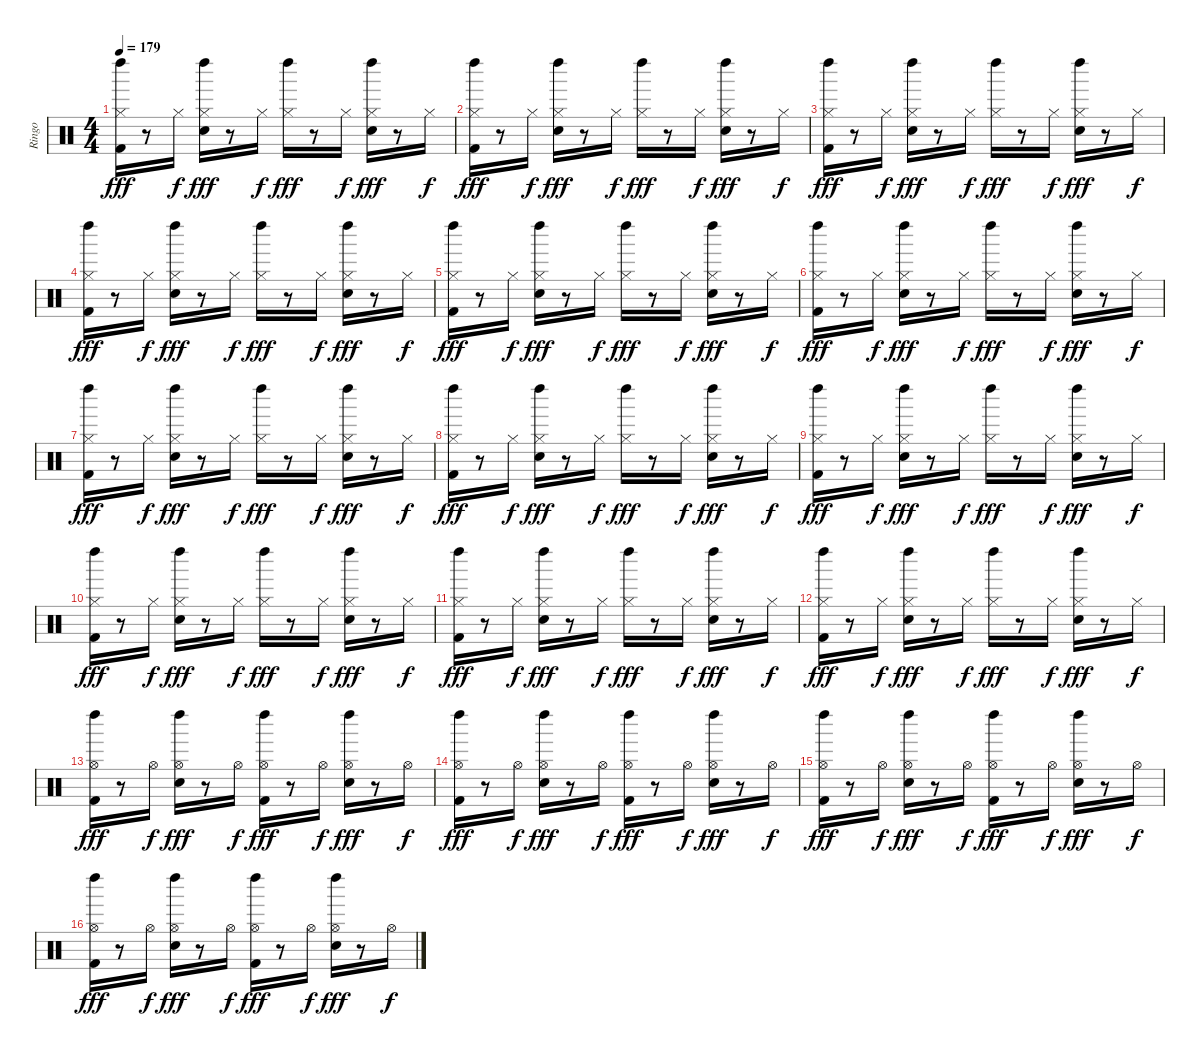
\track ("Ringo" "Ringo") {instrument percussion}
\staff {score}
\articulation defaults
\ts (4 4)
\tempo 179
\clef neutral
\ks c
("Hi-Hat (closed)" "Kick (hit) 2" "Left Maraca (hit)").16{dy fff} r.8 "Hi-Hat (closed)".16{dy f} ("Hi-Hat (closed)" "Snare (hit) 2" "Left Maraca (hit)").16{dy fff} r.8 "Hi-Hat (closed)".16{dy f} ("Hi-Hat (closed)" "Left Maraca (hit)").16{dy fff} r.8 "Hi-Hat (closed)".16{dy f} ("Hi-Hat (closed)" "Snare (hit) 2" "Left Maraca (hit)").16{dy fff} r.8 "Hi-Hat (closed)".16{dy f} |
("Hi-Hat (closed)" "Kick (hit) 2" "Left Maraca (hit)").16{dy fff} r.8 "Hi-Hat (closed)".16{dy f} ("Hi-Hat (closed)" "Snare (hit) 2" "Left Maraca (hit)").16{dy fff} r.8 "Hi-Hat (closed)".16{dy f} ("Hi-Hat (closed)" "Left Maraca (hit)").16{dy fff} r.8 "Hi-Hat (closed)".16{dy f} ("Hi-Hat (closed)" "Snare (hit) 2" "Left Maraca (hit)").16{dy fff} r.8 "Hi-Hat (closed)".16{dy f} |
("Hi-Hat (closed)" "Kick (hit) 2" "Left Maraca (hit)").16{dy fff} r.8 "Hi-Hat (closed)".16{dy f} ("Hi-Hat (closed)" "Snare (hit) 2" "Left Maraca (hit)").16{dy fff} r.8 "Hi-Hat (closed)".16{dy f} ("Hi-Hat (closed)" "Left Maraca (hit)").16{dy fff} r.8 "Hi-Hat (closed)".16{dy f} ("Hi-Hat (closed)" "Snare (hit) 2" "Left Maraca (hit)").16{dy fff} r.8 "Hi-Hat (closed)".16{dy f} |
("Hi-Hat (closed)" "Kick (hit) 2" "Left Maraca (hit)").16{dy fff} r.8 "Hi-Hat (closed)".16{dy f} ("Hi-Hat (closed)" "Snare (hit) 2" "Left Maraca (hit)").16{dy fff} r.8 "Hi-Hat (closed)".16{dy f} ("Hi-Hat (closed)" "Left Maraca (hit)").16{dy fff} r.8 "Hi-Hat (closed)".16{dy f} ("Hi-Hat (closed)" "Snare (hit) 2" "Left Maraca (hit)").16{dy fff} r.8 "Hi-Hat (closed)".16{dy f} |
("Hi-Hat (closed)" "Kick (hit) 2" "Left Maraca (hit)").16{dy fff} r.8 "Hi-Hat (closed)".16{dy f} ("Hi-Hat (closed)" "Snare (hit) 2" "Left Maraca (hit)").16{dy fff} r.8 "Hi-Hat (closed)".16{dy f} ("Hi-Hat (closed)" "Left Maraca (hit)").16{dy fff} r.8 "Hi-Hat (closed)".16{dy f} ("Hi-Hat (closed)" "Snare (hit) 2" "Left Maraca (hit)").16{dy fff} r.8 "Hi-Hat (closed)".16{dy f} |
("Hi-Hat (closed)" "Kick (hit) 2" "Left Maraca (hit)").16{dy fff} r.8 "Hi-Hat (closed)".16{dy f} ("Hi-Hat (closed)" "Snare (hit) 2" "Left Maraca (hit)").16{dy fff} r.8 "Hi-Hat (closed)".16{dy f} ("Hi-Hat (closed)" "Left Maraca (hit)").16{dy fff} r.8 "Hi-Hat (closed)".16{dy f} ("Hi-Hat (closed)" "Snare (hit) 2" "Left Maraca (hit)").16{dy fff} r.8 "Hi-Hat (closed)".16{dy f} |
("Hi-Hat (closed)" "Kick (hit) 2" "Left Maraca (hit)").16{dy fff} r.8 "Hi-Hat (closed)".16{dy f} ("Hi-Hat (closed)" "Snare (hit) 2" "Left Maraca (hit)").16{dy fff} r.8 "Hi-Hat (closed)".16{dy f} ("Hi-Hat (closed)" "Left Maraca (hit)").16{dy fff} r.8 "Hi-Hat (closed)".16{dy f} ("Hi-Hat (closed)" "Snare (hit) 2" "Left Maraca (hit)").16{dy fff} r.8 "Hi-Hat (closed)".16{dy f} |
("Hi-Hat (closed)" "Kick (hit) 2" "Left Maraca (hit)").16{dy fff} r.8 "Hi-Hat (closed)".16{dy f} ("Hi-Hat (closed)" "Snare (hit) 2" "Left Maraca (hit)").16{dy fff} r.8 "Hi-Hat (closed)".16{dy f} ("Hi-Hat (closed)" "Left Maraca (hit)").16{dy fff} r.8 "Hi-Hat (closed)".16{dy f} ("Hi-Hat (closed)" "Snare (hit) 2" "Left Maraca (hit)").16{dy fff} r.8 "Hi-Hat (closed)".16{dy f} |
("Hi-Hat (closed)" "Kick (hit) 2" "Left Maraca (hit)").16{dy fff} r.8 "Hi-Hat (closed)".16{dy f} ("Hi-Hat (closed)" "Snare (hit) 2" "Left Maraca (hit)").16{dy fff} r.8 "Hi-Hat (closed)".16{dy f} ("Hi-Hat (closed)" "Left Maraca (hit)").16{dy fff} r.8 "Hi-Hat (closed)".16{dy f} ("Hi-Hat (closed)" "Snare (hit) 2" "Left Maraca (hit)").16{dy fff} r.8 "Hi-Hat (closed)".16{dy f} |
("Hi-Hat (closed)" "Kick (hit) 2" "Left Maraca (hit)").16{dy fff} r.8 "Hi-Hat (closed)".16{dy f} ("Hi-Hat (closed)" "Snare (hit) 2" "Left Maraca (hit)").16{dy fff} r.8 "Hi-Hat (closed)".16{dy f} ("Hi-Hat (closed)" "Left Maraca (hit)").16{dy fff} r.8 "Hi-Hat (closed)".16{dy f} ("Hi-Hat (closed)" "Snare (hit) 2" "Left Maraca (hit)").16{dy fff} r.8 "Hi-Hat (closed)".16{dy f} |
("Hi-Hat (closed)" "Kick (hit) 2" "Left Maraca (hit)").16{dy fff} r.8 "Hi-Hat (closed)".16{dy f} ("Hi-Hat (closed)" "Snare (hit) 2" "Left Maraca (hit)").16{dy fff} r.8 "Hi-Hat (closed)".16{dy f} ("Hi-Hat (closed)" "Left Maraca (hit)").16{dy fff} r.8 "Hi-Hat (closed)".16{dy f} ("Hi-Hat (closed)" "Snare (hit) 2" "Left Maraca (hit)").16{dy fff} r.8 "Hi-Hat (closed)".16{dy f} |
("Hi-Hat (closed)" "Kick (hit) 2" "Left Maraca (hit)").16{dy fff} r.8 "Hi-Hat (closed)".16{dy f} ("Hi-Hat (closed)" "Snare (hit) 2" "Left Maraca (hit)").16{dy fff} r.8 "Hi-Hat (closed)".16{dy f} ("Hi-Hat (closed)" "Left Maraca (hit)").16{dy fff} r.8 "Hi-Hat (closed)".16{dy f} ("Hi-Hat (closed)" "Snare (hit) 2" "Left Maraca (hit)").16{dy fff} r.8 "Hi-Hat (closed)".16{dy f} |
("Kick (hit) 2" "Hi-Hat (open)" "Left Maraca (hit)").16{dy fff} r.8 "Hi-Hat (open)".16{dy f} ("Snare (hit) 2" "Hi-Hat (open)" "Left Maraca (hit)").16{dy fff} r.8 "Hi-Hat (open)".16{dy f} ("Kick (hit) 2" "Hi-Hat (open)" "Left Maraca (hit)").16{dy fff} r.8 "Hi-Hat (open)".16{dy f} ("Snare (hit) 2" "Hi-Hat (open)" "Left Maraca (hit)").16{dy fff} r.8 "Hi-Hat (open)".16{dy f} |
("Kick (hit) 2" "Hi-Hat (open)" "Left Maraca (hit)").16{dy fff} r.8 "Hi-Hat (open)".16{dy f} ("Snare (hit) 2" "Hi-Hat (open)" "Left Maraca (hit)").16{dy fff} r.8 "Hi-Hat (open)".16{dy f} ("Kick (hit) 2" "Hi-Hat (open)" "Left Maraca (hit)").16{dy fff} r.8 "Hi-Hat (open)".16{dy f} ("Snare (hit) 2" "Hi-Hat (open)" "Left Maraca (hit)").16{dy fff} r.8 "Hi-Hat (open)".16{dy f} |
("Kick (hit) 2" "Hi-Hat (open)" "Left Maraca (hit)").16{dy fff} r.8 "Hi-Hat (open)".16{dy f} ("Snare (hit) 2" "Hi-Hat (open)" "Left Maraca (hit)").16{dy fff} r.8 "Hi-Hat (open)".16{dy f} ("Kick (hit) 2" "Hi-Hat (open)" "Left Maraca (hit)").16{dy fff} r.8 "Hi-Hat (open)".16{dy f} ("Snare (hit) 2" "Hi-Hat (open)" "Left Maraca (hit)").16{dy fff} r.8 "Hi-Hat (open)".16{dy f} |
("Kick (hit) 2" "Hi-Hat (open)" "Left Maraca (hit)").16{dy fff} r.8 "Hi-Hat (open)".16{dy f} ("Snare (hit) 2" "Hi-Hat (open)" "Left Maraca (hit)").16{dy fff} r.8 "Hi-Hat (open)".16{dy f} ("Kick (hit) 2" "Hi-Hat (open)" "Left Maraca (hit)").16{dy fff} r.8 "Hi-Hat (open)".16{dy f} ("Snare (hit) 2" "Hi-Hat (open)" "Left Maraca (hit)").16{dy fff} r.8 "Hi-Hat (open)".16{dy f}
